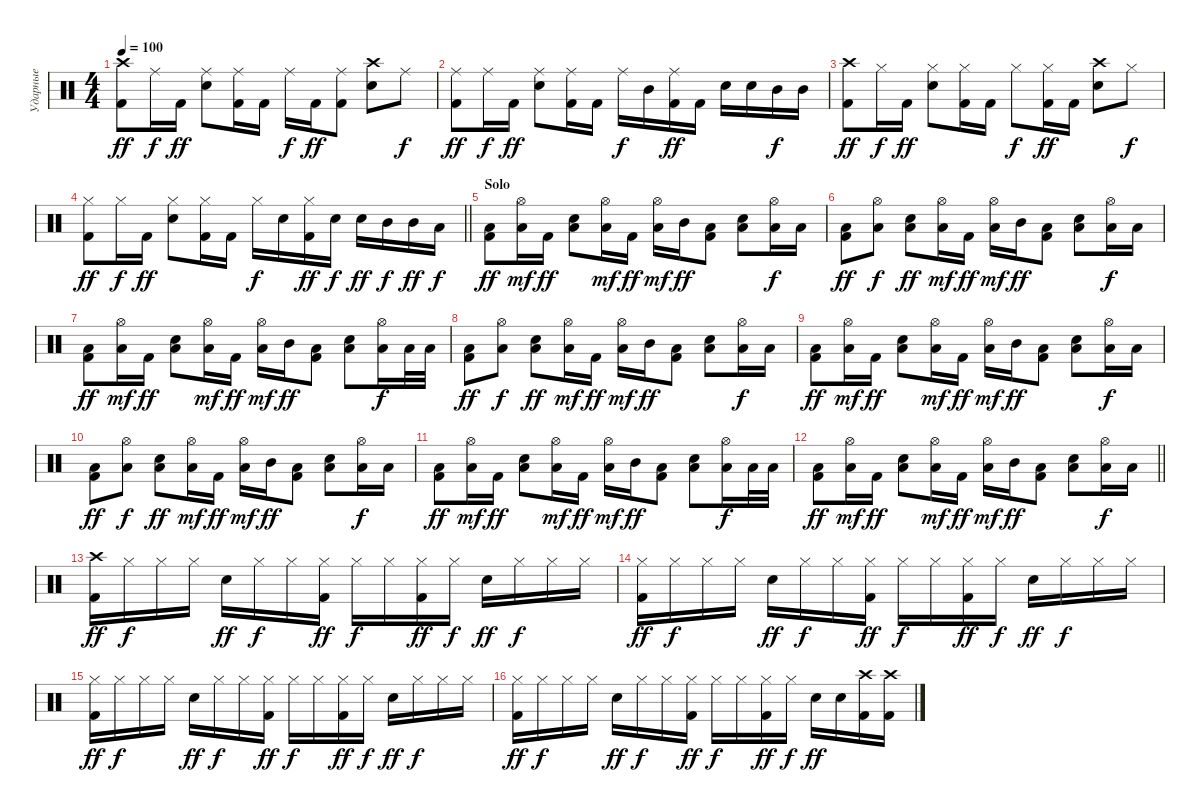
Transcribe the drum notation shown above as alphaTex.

\track ("Ударные" "Ударные") {instrument percussion}
\staff {score}
\articulation defaults
\ts (4 4)
\tempo 100
\clef neutral
\ks c
("Crash high (hit)" "Kick (hit) 2").8{dy ff} "Ride (middle)".16{dy f} "Kick (hit) 2".16{dy ff} ("Ride (middle)" "Snare (hit) 2").8 ("Ride (middle)" "Kick (hit) 2").16 "Kick (hit) 2".16 "Ride (middle)".16{dy f} "Kick (hit) 2".16{dy ff} ("Ride (middle)" "Kick (hit) 2").8 ("Crash high (hit)" "Snare (hit) 2").8 "Ride (middle)".8{dy f} |
("Ride (middle)" "Kick (hit) 2").8{dy ff} "Ride (middle)".16{dy f} "Kick (hit) 2".16{dy ff} ("Ride (middle)" "Snare (hit) 2").8 ("Ride (middle)" "Kick (hit) 2").16 "Kick (hit) 2".16 "Ride (middle)".16{dy f} "Mid Tom (hit)".16 ("Ride (middle)" "Kick (hit) 2").16{dy ff} "Kick (hit) 2".16 "Snare (hit) 2".16 "Snare (hit) 2".16 "Mid Tom (hit)".16{dy f} "Mid Tom (hit)".16 |
("Crash high (hit)" "Kick (hit) 2").8{dy ff} "Hi-Hat (closed)".16{dy f} "Kick (hit) 2".16{dy ff} ("Hi-Hat (closed)" "Snare (hit) 2").8 ("Hi-Hat (closed)" "Kick (hit) 2").16 "Kick (hit) 2".16 "Hi-Hat (closed)".8{dy f} ("Hi-Hat (closed)" "Kick (hit) 2").16{dy ff} "Kick (hit) 2".16 ("Crash high (hit)" "Snare (hit) 2").8 "Hi-Hat (closed)".8{dy f} |
\barLineRight lightlight
("Hi-Hat (closed)" "Kick (hit) 2").8{dy ff} "Hi-Hat (closed)".16{dy f} "Kick (hit) 2".16{dy ff} ("Hi-Hat (closed)" "Snare (hit) 2").8 ("Hi-Hat (closed)" "Kick (hit) 2").16 "Kick (hit) 2".16 "Hi-Hat (closed)".16{dy f} "Snare (hit) 2".16 ("Hi-Hat (closed)" "Kick (hit) 2").16{dy ff} "Snare (hit) 2".16{dy f} "Snare (hit) 2".16{dy ff} "Mid Tom (hit)".16{dy f} "Mid Tom (hit)".16{dy ff} "Low Floor Tom (hit)".16{dy f} |
\section ("" "Solo")
("Low Tom (hit)" "Kick (hit) 2").8{dy ff} ("Hi-Hat (open)" "Low Tom (hit)").16{dy mf} "Kick (hit) 2".16{dy ff} ("Low Tom (hit)" "Snare (hit) 2").8 ("Hi-Hat (open)" "Low Tom (hit)").16{dy mf} "Kick (hit) 2".16{dy ff} ("Hi-Hat (open)" "Low Tom (hit)").16{dy mf} "Mid Tom (hit)".16{dy ff} ("Low Tom (hit)" "Kick (hit) 2").8 ("Low Tom (hit)" "Snare (hit) 2").8 ("Hi-Hat (open)" "Low Tom (hit)").16{dy f} "Low Tom (hit)".16 |
("Low Tom (hit)" "Kick (hit) 2").8{dy ff} ("Hi-Hat (open)" "Low Tom (hit)").8{dy f} ("Low Tom (hit)" "Snare (hit) 2").8{dy ff} ("Hi-Hat (open)" "Low Tom (hit)").16{dy mf} "Kick (hit) 2".16{dy ff} ("Hi-Hat (open)" "Low Tom (hit)").16{dy mf} "Mid Tom (hit)".16{dy ff} ("Low Tom (hit)" "Kick (hit) 2").8 ("Low Tom (hit)" "Snare (hit) 2").8 ("Hi-Hat (open)" "Low Tom (hit)").16{dy f} "Low Tom (hit)".16 |
("Low Tom (hit)" "Kick (hit) 2").8{dy ff} ("Hi-Hat (open)" "Low Tom (hit)").16{dy mf} "Kick (hit) 2".16{dy ff} ("Low Tom (hit)" "Snare (hit) 2").8 ("Hi-Hat (open)" "Low Tom (hit)").16{dy mf} "Kick (hit) 2".16{dy ff} ("Hi-Hat (open)" "Low Tom (hit)").16{dy mf} "Mid Tom (hit)".16{dy ff} ("Low Tom (hit)" "Kick (hit) 2").8 ("Low Tom (hit)" "Snare (hit) 2").8 ("Hi-Hat (open)" "Low Tom (hit)").16{dy f} "Low Tom (hit)".32 "Low Tom (hit)".32 |
("Low Tom (hit)" "Kick (hit) 2").8{dy ff} ("Hi-Hat (open)" "Low Tom (hit)").8{dy f} ("Low Tom (hit)" "Snare (hit) 2").8{dy ff} ("Hi-Hat (open)" "Low Tom (hit)").16{dy mf} "Kick (hit) 2".16{dy ff} ("Hi-Hat (open)" "Low Tom (hit)").16{dy mf} "Mid Tom (hit)".16{dy ff} ("Low Tom (hit)" "Kick (hit) 2").8 ("Low Tom (hit)" "Snare (hit) 2").8 ("Hi-Hat (open)" "Low Tom (hit)").16{dy f} "Low Tom (hit)".16 |
("Low Tom (hit)" "Kick (hit) 2").8{dy ff} ("Hi-Hat (open)" "Low Tom (hit)").16{dy mf} "Kick (hit) 2".16{dy ff} ("Low Tom (hit)" "Snare (hit) 2").8 ("Hi-Hat (open)" "Low Tom (hit)").16{dy mf} "Kick (hit) 2".16{dy ff} ("Hi-Hat (open)" "Low Tom (hit)").16{dy mf} "Mid Tom (hit)".16{dy ff} ("Low Tom (hit)" "Kick (hit) 2").8 ("Low Tom (hit)" "Snare (hit) 2").8 ("Hi-Hat (open)" "Low Tom (hit)").16{dy f} "Low Tom (hit)".16 |
("Low Tom (hit)" "Kick (hit) 2").8{dy ff} ("Hi-Hat (open)" "Low Tom (hit)").8{dy f} ("Low Tom (hit)" "Snare (hit) 2").8{dy ff} ("Hi-Hat (open)" "Low Tom (hit)").16{dy mf} "Kick (hit) 2".16{dy ff} ("Hi-Hat (open)" "Low Tom (hit)").16{dy mf} "Mid Tom (hit)".16{dy ff} ("Low Tom (hit)" "Kick (hit) 2").8 ("Low Tom (hit)" "Snare (hit) 2").8 ("Hi-Hat (open)" "Low Tom (hit)").16{dy f} "Low Tom (hit)".16 |
("Low Tom (hit)" "Kick (hit) 2").8{dy ff} ("Hi-Hat (open)" "Low Tom (hit)").16{dy mf} "Kick (hit) 2".16{dy ff} ("Low Tom (hit)" "Snare (hit) 2").8 ("Hi-Hat (open)" "Low Tom (hit)").16{dy mf} "Kick (hit) 2".16{dy ff} ("Hi-Hat (open)" "Low Tom (hit)").16{dy mf} "Mid Tom (hit)".16{dy ff} ("Low Tom (hit)" "Kick (hit) 2").8 ("Low Tom (hit)" "Snare (hit) 2").8 ("Hi-Hat (open)" "Low Tom (hit)").16{dy f} "Low Tom (hit)".32 "Low Tom (hit)".32 |
\barLineRight lightlight
("Low Tom (hit)" "Kick (hit) 2").8{dy ff} ("Hi-Hat (open)" "Low Tom (hit)").16{dy mf} "Kick (hit) 2".16{dy ff} ("Low Tom (hit)" "Snare (hit) 2").8 ("Hi-Hat (open)" "Low Tom (hit)").16{dy mf} "Kick (hit) 2".16{dy ff} ("Hi-Hat (open)" "Low Tom (hit)").16{dy mf} "Mid Tom (hit)".16{dy ff} ("Low Tom (hit)" "Kick (hit) 2").8 ("Low Tom (hit)" "Snare (hit) 2").8 ("Hi-Hat (open)" "Low Floor Tom (hit)").16{dy f} "Low Floor Tom (hit)".16 |
("Crash high (hit)" "Kick (hit) 2").16{dy ff} "Hi-Hat (closed)".16{dy f} "Hi-Hat (closed)".16 "Hi-Hat (closed)".16 "Snare (hit) 2".16{dy ff} "Hi-Hat (closed)".16{dy f} "Hi-Hat (closed)".16 ("Hi-Hat (closed)" "Kick (hit) 2").16{dy ff} "Hi-Hat (closed)".16{dy f} "Hi-Hat (closed)".16 ("Hi-Hat (closed)" "Kick (hit) 2").16{dy ff} "Hi-Hat (closed)".16{dy f} "Snare (hit) 2".16{dy ff} "Hi-Hat (closed)".16{dy f} "Hi-Hat (closed)".16 "Hi-Hat (closed)".16 |
("Hi-Hat (closed)" "Kick (hit) 2").16{dy ff} "Hi-Hat (closed)".16{dy f} "Hi-Hat (closed)".16 "Hi-Hat (closed)".16 "Snare (hit) 2".16{dy ff} "Hi-Hat (closed)".16{dy f} "Hi-Hat (closed)".16 ("Hi-Hat (closed)" "Kick (hit) 2").16{dy ff} "Hi-Hat (closed)".16{dy f} "Hi-Hat (closed)".16 ("Hi-Hat (closed)" "Kick (hit) 2").16{dy ff} "Hi-Hat (closed)".16{dy f} "Snare (hit) 2".16{dy ff} "Hi-Hat (closed)".16{dy f} "Hi-Hat (closed)".16 "Hi-Hat (closed)".16 |
("Hi-Hat (closed)" "Kick (hit) 2").16{dy ff} "Hi-Hat (closed)".16{dy f} "Hi-Hat (closed)".16 "Hi-Hat (closed)".16 "Snare (hit) 2".16{dy ff} "Hi-Hat (closed)".16{dy f} "Hi-Hat (closed)".16 ("Hi-Hat (closed)" "Kick (hit) 2").16{dy ff} "Hi-Hat (closed)".16{dy f} "Hi-Hat (closed)".16 ("Hi-Hat (closed)" "Kick (hit) 2").16{dy ff} "Hi-Hat (closed)".16{dy f} "Snare (hit) 2".16{dy ff} "Hi-Hat (closed)".16{dy f} "Hi-Hat (closed)".16 "Hi-Hat (closed)".16 |
("Hi-Hat (closed)" "Kick (hit) 2").16{dy ff} "Hi-Hat (closed)".16{dy f} "Hi-Hat (closed)".16 "Hi-Hat (closed)".16 "Snare (hit) 2".16{dy ff} "Hi-Hat (closed)".16{dy f} "Hi-Hat (closed)".16 ("Hi-Hat (closed)" "Kick (hit) 2").16{dy ff} "Hi-Hat (closed)".16{dy f} "Hi-Hat (closed)".16 ("Hi-Hat (closed)" "Kick (hit) 2").16{dy ff} "Hi-Hat (closed)".16{dy f} "Snare (hit) 2".16{dy ff} "Snare (hit) 2".16 ("Crash high (hit)" "Kick (hit) 2").16 ("Crash high (hit)" "Kick (hit) 2").16
